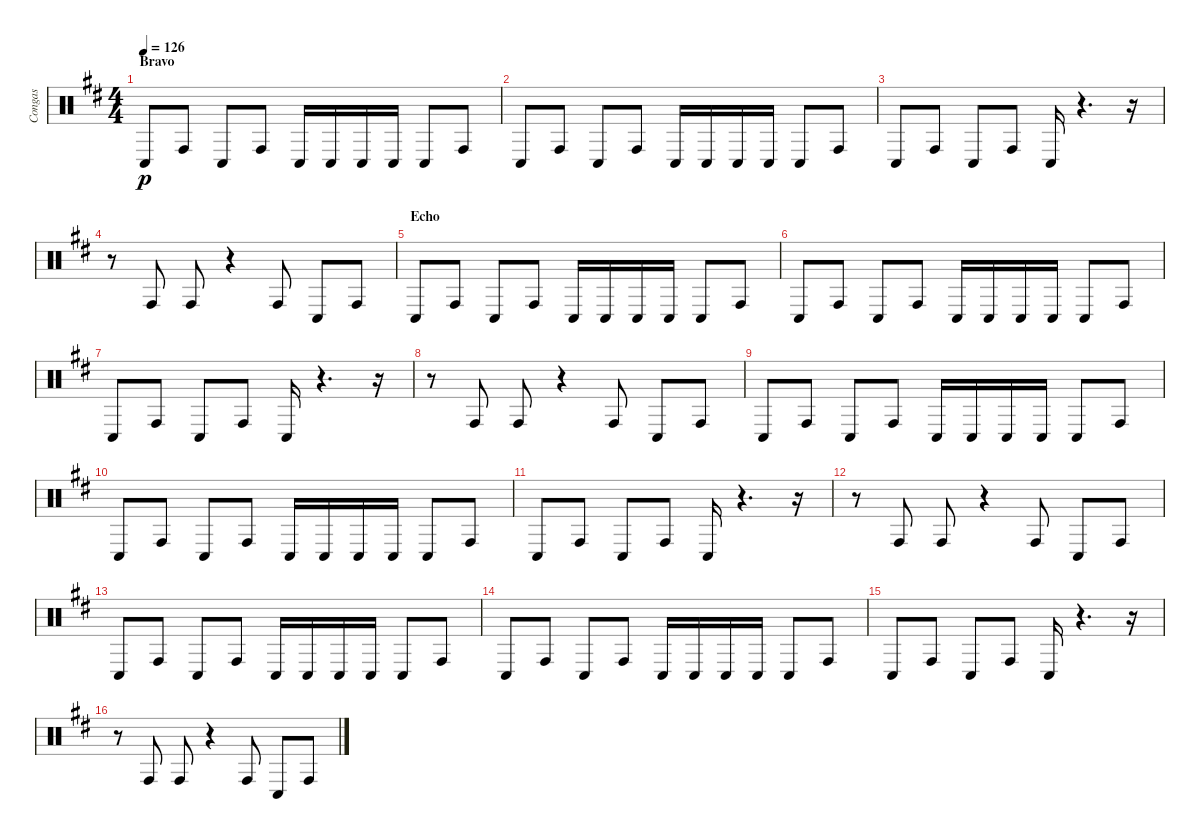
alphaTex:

\track ("Congas" "Congas") {instrument percussion}
\staff {score}
\articulation defaults
\ts (4 4)
\section ("" "Bravo")
\tempo 126
\clef neutral
\ks bminor "Conga low (hit)".8{dy p} "Conga high (hit)".8 "Conga low (hit)".8 "Conga high (hit)".8 "Conga low (hit)".16 "Conga low (hit)".16 "Conga low (hit)".16 "Conga low (hit)".16 "Conga low (hit)".8 "Conga high (hit)".8
|
"Conga low (hit)".8 "Conga high (hit)".8 "Conga low (hit)".8 "Conga high (hit)".8 "Conga low (hit)".16 "Conga low (hit)".16 "Conga low (hit)".16 "Conga low (hit)".16 "Conga low (hit)".8 "Conga high (hit)".8 |
"Conga low (hit)".8 "Conga high (hit)".8 "Conga low (hit)".8 "Conga high (hit)".8 "Conga low (hit)".16 r.4{d} r.16 |
r.8 "Conga high (hit)".8 "Conga high (hit)".8 r.4 "Conga high (hit)".8 "Conga low (hit)".8 "Conga high (hit)".8 |
\section ("" "Echo")
"Conga low (hit)".8 "Conga high (hit)".8 "Conga low (hit)".8 "Conga high (hit)".8 "Conga low (hit)".16 "Conga low (hit)".16 "Conga low (hit)".16 "Conga low (hit)".16 "Conga low (hit)".8 "Conga high (hit)".8 |
"Conga low (hit)".8 "Conga high (hit)".8 "Conga low (hit)".8 "Conga high (hit)".8 "Conga low (hit)".16 "Conga low (hit)".16 "Conga low (hit)".16 "Conga low (hit)".16 "Conga low (hit)".8 "Conga high (hit)".8 |
"Conga low (hit)".8 "Conga high (hit)".8 "Conga low (hit)".8 "Conga high (hit)".8 "Conga low (hit)".16 r.4{d} r.16 |
r.8 "Conga high (hit)".8 "Conga high (hit)".8 r.4 "Conga high (hit)".8 "Conga low (hit)".8 "Conga high (hit)".8 |
"Conga low (hit)".8 "Conga high (hit)".8 "Conga low (hit)".8 "Conga high (hit)".8 "Conga low (hit)".16 "Conga low (hit)".16 "Conga low (hit)".16 "Conga low (hit)".16 "Conga low (hit)".8 "Conga high (hit)".8 |
"Conga low (hit)".8 "Conga high (hit)".8 "Conga low (hit)".8 "Conga high (hit)".8 "Conga low (hit)".16 "Conga low (hit)".16 "Conga low (hit)".16 "Conga low (hit)".16 "Conga low (hit)".8 "Conga high (hit)".8 |
"Conga low (hit)".8 "Conga high (hit)".8 "Conga low (hit)".8 "Conga high (hit)".8 "Conga low (hit)".16 r.4{d} r.16 |
r.8 "Conga high (hit)".8 "Conga high (hit)".8 r.4 "Conga high (hit)".8 "Conga low (hit)".8 "Conga high (hit)".8 |
"Conga low (hit)".8 "Conga high (hit)".8 "Conga low (hit)".8 "Conga high (hit)".8 "Conga low (hit)".16 "Conga low (hit)".16 "Conga low (hit)".16 "Conga low (hit)".16 "Conga low (hit)".8 "Conga high (hit)".8 |
"Conga low (hit)".8 "Conga high (hit)".8 "Conga low (hit)".8 "Conga high (hit)".8 "Conga low (hit)".16 "Conga low (hit)".16 "Conga low (hit)".16 "Conga low (hit)".16 "Conga low (hit)".8 "Conga high (hit)".8 |
"Conga low (hit)".8 "Conga high (hit)".8 "Conga low (hit)".8 "Conga high (hit)".8 "Conga low (hit)".16 r.4{d} r.16 |
r.8 "Conga high (hit)".8 "Conga high (hit)".8 r.4 "Conga high (hit)".8 "Conga low (hit)".8 "Conga high (hit)".8
